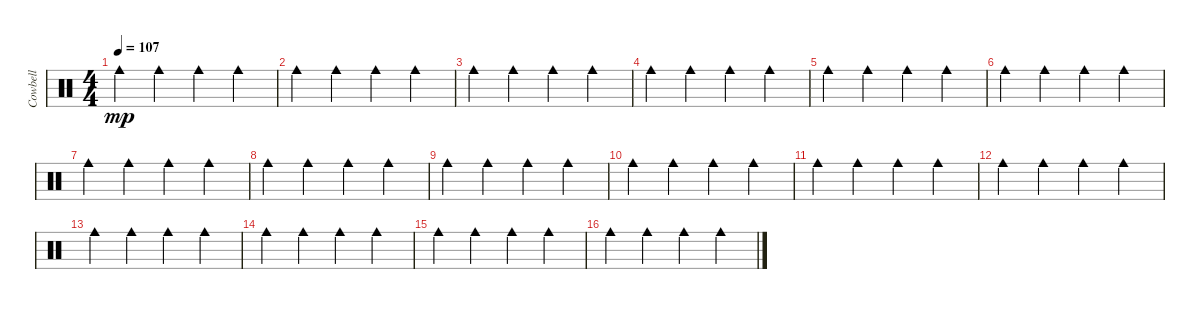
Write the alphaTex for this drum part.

\track ("Cowbell" "Cowbell") {instrument percussion}
\staff {score}
\articulation defaults
\ts (4 4)
\tempo 107
\clef neutral
\ks c "Cowbell medium (hit)".4{dy mp} "Cowbell medium (hit)".4 "Cowbell medium (hit)".4 "Cowbell medium (hit)".4
|
"Cowbell medium (hit)".4 "Cowbell medium (hit)".4 "Cowbell medium (hit)".4 "Cowbell medium (hit)".4 |
"Cowbell medium (hit)".4 "Cowbell medium (hit)".4 "Cowbell medium (hit)".4 "Cowbell medium (hit)".4 |
"Cowbell medium (hit)".4 "Cowbell medium (hit)".4 "Cowbell medium (hit)".4 "Cowbell medium (hit)".4 |
"Cowbell medium (hit)".4 "Cowbell medium (hit)".4 "Cowbell medium (hit)".4 "Cowbell medium (hit)".4 |
"Cowbell medium (hit)".4 "Cowbell medium (hit)".4 "Cowbell medium (hit)".4 "Cowbell medium (hit)".4 |
"Cowbell medium (hit)".4 "Cowbell medium (hit)".4 "Cowbell medium (hit)".4 "Cowbell medium (hit)".4 |
"Cowbell medium (hit)".4 "Cowbell medium (hit)".4 "Cowbell medium (hit)".4 "Cowbell medium (hit)".4 |
"Cowbell medium (hit)".4 "Cowbell medium (hit)".4 "Cowbell medium (hit)".4 "Cowbell medium (hit)".4 |
"Cowbell medium (hit)".4 "Cowbell medium (hit)".4 "Cowbell medium (hit)".4 "Cowbell medium (hit)".4 |
"Cowbell medium (hit)".4 "Cowbell medium (hit)".4 "Cowbell medium (hit)".4 "Cowbell medium (hit)".4 |
"Cowbell medium (hit)".4 "Cowbell medium (hit)".4 "Cowbell medium (hit)".4 "Cowbell medium (hit)".4 |
"Cowbell medium (hit)".4 "Cowbell medium (hit)".4 "Cowbell medium (hit)".4 "Cowbell medium (hit)".4 |
"Cowbell medium (hit)".4 "Cowbell medium (hit)".4 "Cowbell medium (hit)".4 "Cowbell medium (hit)".4 |
"Cowbell medium (hit)".4 "Cowbell medium (hit)".4 "Cowbell medium (hit)".4 "Cowbell medium (hit)".4 |
"Cowbell medium (hit)".4 "Cowbell medium (hit)".4 "Cowbell medium (hit)".4 "Cowbell medium (hit)".4
